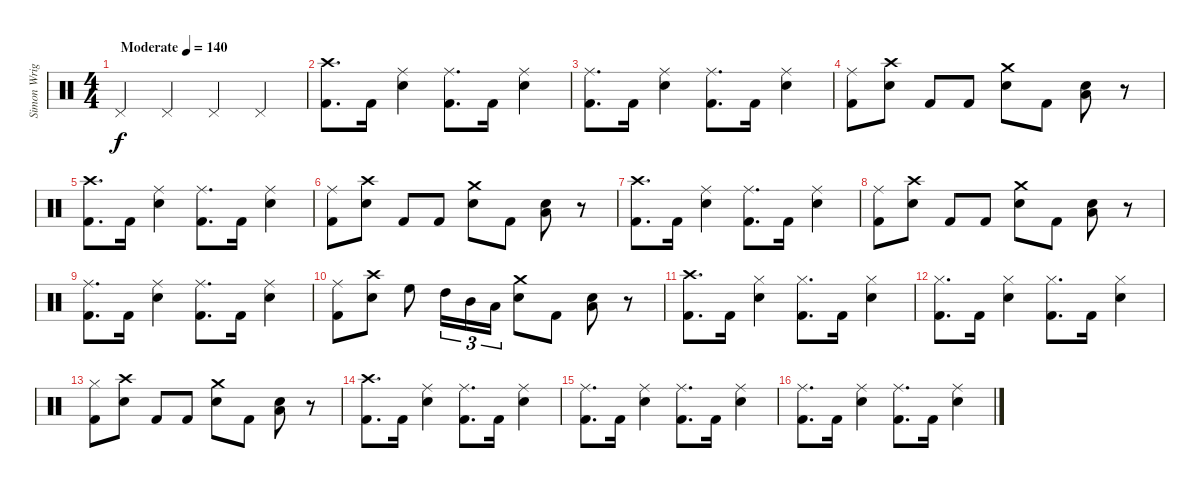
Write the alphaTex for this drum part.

\track ("Simon Wright" "Simon Wrig") {instrument percussion}
\staff {score}
\articulation defaults
\ts (4 4)
\tempo (140 "Moderate")
\clef neutral
\ks c "Pedal Hi-Hat (hit)".4{dy f} "Pedal Hi-Hat (hit)".4 "Pedal Hi-Hat (hit)".4 "Pedal Hi-Hat (hit)".4
|
("Crash high (hit)" "Kick (hit) 2").8{d} "Kick (hit) 2".16 ("Ride (middle)" "Snare (hit) 2").4 ("Ride (middle)" "Kick (hit) 2").8{d} "Kick (hit) 2".16 ("Ride (middle)" "Snare (hit) 2").4 |
("Ride (middle)" "Kick (hit) 2").8{d} "Kick (hit) 2".16 ("Ride (middle)" "Snare (hit) 2").4 ("Ride (middle)" "Kick (hit) 2").8{d} "Kick (hit) 2".16 ("Ride (middle)" "Snare (hit) 2").4 |
("Ride (middle)" "Kick (hit) 2").8 ("Crash high (hit)" "Snare (hit) 2").8 "Kick (hit) 2".8 "Kick (hit) 2".8 ("Crash medium (hit)" "Snare (hit) 2").8 "Kick (hit) 2".8 ("Low Tom (hit)" "Snare (hit) 2").8 r.8 |
("Crash high (hit)" "Kick (hit) 2").8{d} "Kick (hit) 2".16 ("Ride (middle)" "Snare (hit) 2").4 ("Ride (middle)" "Kick (hit) 2").8{d} "Kick (hit) 2".16 ("Ride (middle)" "Snare (hit) 2").4 |
("Ride (middle)" "Kick (hit) 2").8 ("Crash high (hit)" "Snare (hit) 2").8 "Kick (hit) 2".8 "Kick (hit) 2".8 ("Crash medium (hit)" "Snare (hit) 2").8 "Kick (hit) 2".8 ("Low Tom (hit)" "Snare (hit) 2").8 r.8 |
("Crash high (hit)" "Kick (hit) 2").8{d} "Kick (hit) 2".16 ("Ride (middle)" "Snare (hit) 2").4 ("Ride (middle)" "Kick (hit) 2").8{d} "Kick (hit) 2".16 ("Ride (middle)" "Snare (hit) 2").4 |
("Ride (middle)" "Kick (hit) 2").8 ("Crash high (hit)" "Snare (hit) 2").8 "Kick (hit) 2".8 "Kick (hit) 2".8 ("Crash medium (hit)" "Snare (hit) 2").8 "Kick (hit) 2".8 ("Low Tom (hit)" "Snare (hit) 2").8 r.8 |
("Ride (middle)" "Kick (hit) 2").8{d} "Kick (hit) 2".16 ("Ride (middle)" "Snare (hit) 2").4 ("Ride (middle)" "Kick (hit) 2").8{d} "Kick (hit) 2".16 ("Ride (middle)" "Snare (hit) 2").4 |
("Ride (middle)" "Kick (hit) 2").8 ("Crash high (hit)" "Snare (hit) 2").8 "High Floor Tom (hit)".8 "High Tom (hit)".16{tu (3 2)} "Mid Tom (hit)".16{tu (3 2)} "Low Tom (hit)".16{tu (3 2)} ("Crash medium (hit)" "Snare (hit) 2").8 "Kick (hit) 2".8 ("Low Tom (hit)" "Snare (hit) 2").8 r.8 |
("Crash high (hit)" "Kick (hit) 2").8{d} "Kick (hit) 2".16 ("Hi-Hat (closed)" "Snare (hit) 2").4 ("Hi-Hat (closed)" "Kick (hit) 2").8{d} "Kick (hit) 2".16 ("Hi-Hat (closed)" "Snare (hit) 2").4 |
("Hi-Hat (closed)" "Kick (hit) 2").8{d} "Kick (hit) 2".16 ("Hi-Hat (closed)" "Snare (hit) 2").4 ("Hi-Hat (closed)" "Kick (hit) 2").8{d} "Kick (hit) 2".16 ("Hi-Hat (closed)" "Snare (hit) 2").4 |
("Hi-Hat (closed)" "Kick (hit) 2").8 ("Crash high (hit)" "Snare (hit) 2").8 "Kick (hit) 2".8 "Kick (hit) 2".8 ("Crash medium (hit)" "Snare (hit) 2").8 "Kick (hit) 2".8 ("Low Tom (hit)" "Snare (hit) 2").8 r.8 |
("Crash high (hit)" "Kick (hit) 2").8{d} "Kick (hit) 2".16 ("Ride (middle)" "Snare (hit) 2").4 ("Ride (middle)" "Kick (hit) 2").8{d} "Kick (hit) 2".16 ("Ride (middle)" "Snare (hit) 2").4 |
("Ride (middle)" "Kick (hit) 2").8{d} "Kick (hit) 2".16 ("Ride (middle)" "Snare (hit) 2").4 ("Ride (middle)" "Kick (hit) 2").8{d} "Kick (hit) 2".16 ("Ride (middle)" "Snare (hit) 2").4 |
("Ride (middle)" "Kick (hit) 2").8{d} "Kick (hit) 2".16 ("Ride (middle)" "Snare (hit) 2").4 ("Ride (middle)" "Kick (hit) 2").8{d} "Kick (hit) 2".16 ("Ride (middle)" "Snare (hit) 2").4
